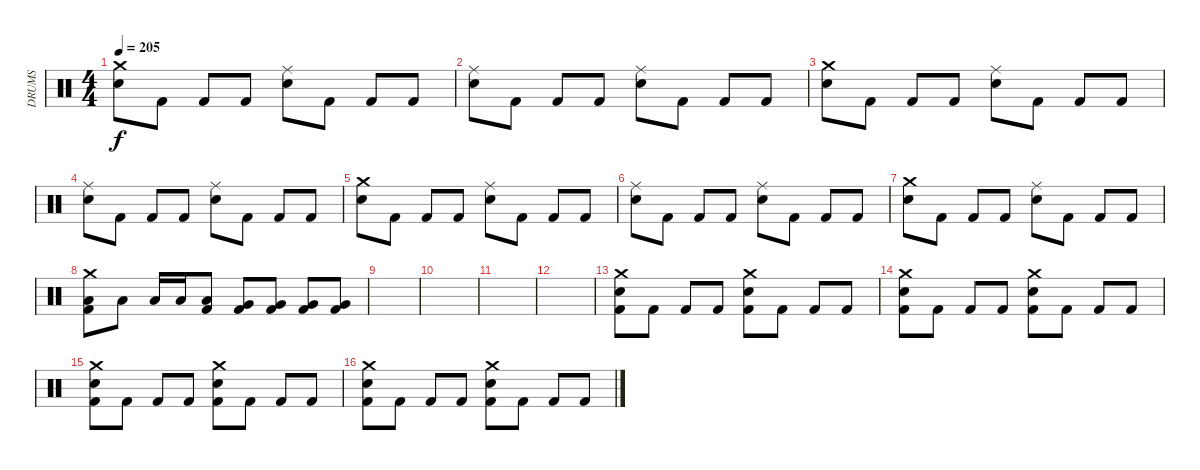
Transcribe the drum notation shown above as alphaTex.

\track ("DRUMS" "DRUMS") {instrument percussion}
\staff {score}
\articulation defaults
\ts (4 4)
\tempo 205
\clef neutral
\ks c
("Crash medium (hit)" "Snare (hit) 2").8{dy f} "Kick (hit) 2".8 "Kick (hit) 2".8 "Kick (hit) 2".8 ("Ride (middle)" "Snare (hit) 2").8 "Kick (hit) 2".8 "Kick (hit) 2".8 "Kick (hit) 2".8 |
("Ride (middle)" "Snare (hit) 2").8 "Kick (hit) 2".8 "Kick (hit) 2".8 "Kick (hit) 2".8 ("Ride (middle)" "Snare (hit) 2").8 "Kick (hit) 2".8 "Kick (hit) 2".8 "Kick (hit) 2".8 |
("Crash medium (hit)" "Snare (hit) 2").8 "Kick (hit) 2".8 "Kick (hit) 2".8 "Kick (hit) 2".8 ("Ride (middle)" "Snare (hit) 2").8 "Kick (hit) 2".8 "Kick (hit) 2".8 "Kick (hit) 2".8 |
("Ride (middle)" "Snare (hit) 2").8 "Kick (hit) 2".8 "Kick (hit) 2".8 "Kick (hit) 2".8 ("Ride (middle)" "Snare (hit) 2").8 "Kick (hit) 2".8 "Kick (hit) 2".8 "Kick (hit) 2".8 |
("Crash medium (hit)" "Snare (hit) 2").8 "Kick (hit) 2".8 "Kick (hit) 2".8 "Kick (hit) 2".8 ("Ride (middle)" "Snare (hit) 2").8 "Kick (hit) 2".8 "Kick (hit) 2".8 "Kick (hit) 2".8 |
("Ride (middle)" "Snare (hit) 2").8 "Kick (hit) 2".8 "Kick (hit) 2".8 "Kick (hit) 2".8 ("Ride (middle)" "Snare (hit) 2").8 "Kick (hit) 2".8 "Kick (hit) 2".8 "Kick (hit) 2".8 |
("Crash medium (hit)" "Snare (hit) 2").8 "Kick (hit) 2".8 "Kick (hit) 2".8 "Kick (hit) 2".8 ("Ride (middle)" "Snare (hit) 2").8 "Kick (hit) 2".8 "Kick (hit) 2".8 "Kick (hit) 2".8 |
("Crash medium (hit)" "Low Tom (hit)" "Kick (hit) 2").8 "Low Tom (hit)".8 "Low Tom (hit)".16 "Low Tom (hit)".16 ("Low Tom (hit)" "Kick (hit) 2").8 ("Very Low Tom (hit)" "Kick (hit) 2").8 ("Very Low Tom (hit)" "Kick (hit) 2").8 ("Very Low Tom (hit)" "Kick (hit) 2").8 ("Very Low Tom (hit)" "Kick (hit) 2").8 |
|
|
|
|
("Crash medium (hit)" "Snare (hit) 2" "Kick (hit) 2").8 "Kick (hit) 2".8 "Kick (hit) 2".8 "Kick (hit) 2".8 ("Crash medium (hit)" "Snare (hit) 2" "Kick (hit) 2").8 "Kick (hit) 2".8 "Kick (hit) 2".8 "Kick (hit) 2".8 |
("Crash medium (hit)" "Snare (hit) 2" "Kick (hit) 2").8 "Kick (hit) 2".8 "Kick (hit) 2".8 "Kick (hit) 2".8 ("Crash medium (hit)" "Snare (hit) 2" "Kick (hit) 2").8 "Kick (hit) 2".8 "Kick (hit) 2".8 "Kick (hit) 2".8 |
("Crash medium (hit)" "Snare (hit) 2" "Kick (hit) 2").8 "Kick (hit) 2".8 "Kick (hit) 2".8 "Kick (hit) 2".8 ("Crash medium (hit)" "Snare (hit) 2" "Kick (hit) 2").8 "Kick (hit) 2".8 "Kick (hit) 2".8 "Kick (hit) 2".8 |
("Crash medium (hit)" "Snare (hit) 2" "Kick (hit) 2").8 "Kick (hit) 2".8 "Kick (hit) 2".8 "Kick (hit) 2".8 ("Crash medium (hit)" "Snare (hit) 2" "Kick (hit) 2").8 "Kick (hit) 2".8 "Kick (hit) 2".8 "Kick (hit) 2".8
